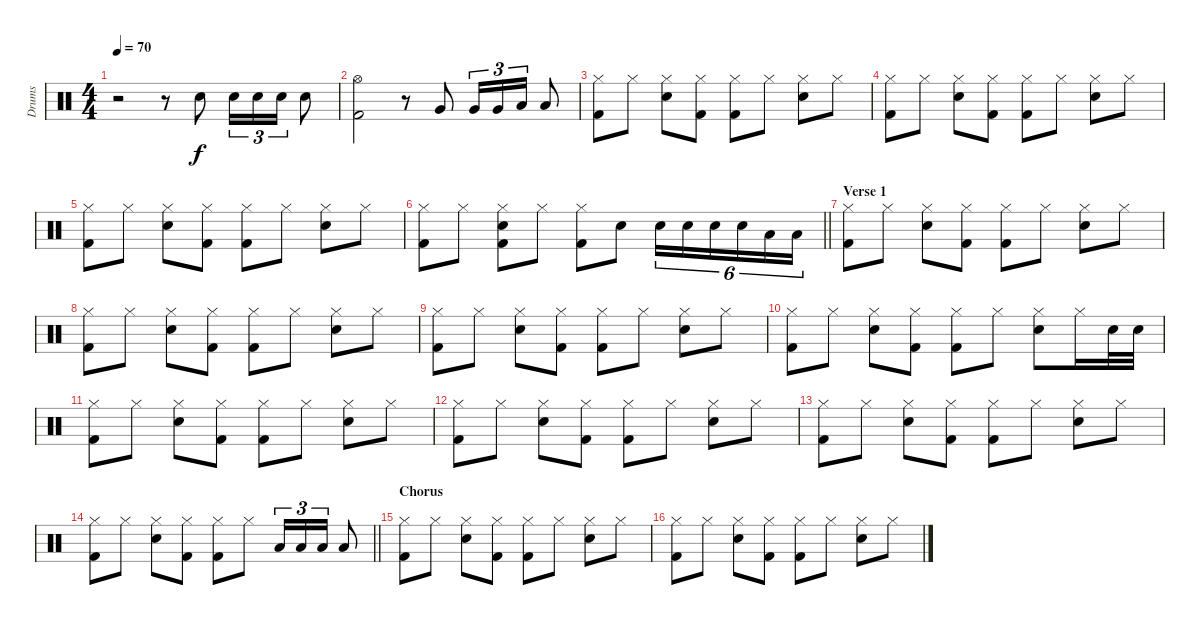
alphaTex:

\track ("Drums" "Drums") {instrument percussion}
\staff {score}
\articulation defaults
\ts (4 4)
\tempo 70
\clef neutral
\ks c
r.2{dy f} r.8 "Snare (hit) 2".8 "Snare (hit) 2".16{tu (3 2)} "Snare (hit) 2".16{tu (3 2)} "Snare (hit) 2".16{tu (3 2)} "Snare (hit) 2".8 |
("Kick (hit) 2" "Hi-Hat (open)").2 r.8 "Very Low Tom (hit)".8 "Very Low Tom (hit)".16{tu (3 2)} "Very Low Tom (hit)".16{tu (3 2)} "Low Floor Tom (hit)".16{tu (3 2)} "Low Floor Tom (hit)".8 |
("Kick (hit) 2" "Hi-Hat (closed)").8 "Hi-Hat (closed)".8 ("Snare (hit) 2" "Hi-Hat (closed)").8 ("Kick (hit) 2" "Hi-Hat (closed)").8 ("Kick (hit) 2" "Hi-Hat (closed)").8 "Hi-Hat (closed)".8 ("Snare (hit) 2" "Hi-Hat (closed)").8 "Hi-Hat (closed)".8 |
("Kick (hit) 2" "Hi-Hat (closed)").8 "Hi-Hat (closed)".8 ("Snare (hit) 2" "Hi-Hat (closed)").8 ("Kick (hit) 2" "Hi-Hat (closed)").8 ("Kick (hit) 2" "Hi-Hat (closed)").8 "Hi-Hat (closed)".8 ("Snare (hit) 2" "Hi-Hat (closed)").8 "Hi-Hat (closed)".8 |
("Kick (hit) 2" "Hi-Hat (closed)").8 "Hi-Hat (closed)".8 ("Snare (hit) 2" "Hi-Hat (closed)").8 ("Kick (hit) 2" "Hi-Hat (closed)").8 ("Kick (hit) 2" "Hi-Hat (closed)").8 "Hi-Hat (closed)".8 ("Snare (hit) 2" "Hi-Hat (closed)").8 "Hi-Hat (closed)".8 |
\barLineRight lightlight
("Kick (hit) 2" "Hi-Hat (closed)").8 "Hi-Hat (closed)".8 ("Kick (hit) 2" "Snare (hit) 2" "Hi-Hat (closed)").8 "Hi-Hat (closed)".8 ("Kick (hit) 2" "Hi-Hat (closed)").8 "Snare (hit) 2".8 "Snare (hit) 2".16{tu (6 4)} "Snare (hit) 2".16{tu (6 4)} "Snare (hit) 2".16{tu (6 4)} "Snare (hit) 2".16{tu (6 4)} "Low Tom (hit)".16{tu (6 4)} "Low Tom (hit)".16{tu (6 4)} |
\section ("" "Verse 1")
("Kick (hit) 2" "Hi-Hat (closed)").8 "Hi-Hat (closed)".8 ("Snare (hit) 2" "Hi-Hat (closed)").8 ("Kick (hit) 2" "Hi-Hat (closed)").8 ("Kick (hit) 2" "Hi-Hat (closed)").8 "Hi-Hat (closed)".8 ("Snare (hit) 2" "Hi-Hat (closed)").8 "Hi-Hat (closed)".8 |
("Kick (hit) 2" "Hi-Hat (closed)").8 "Hi-Hat (closed)".8 ("Snare (hit) 2" "Hi-Hat (closed)").8 ("Kick (hit) 2" "Hi-Hat (closed)").8 ("Kick (hit) 2" "Hi-Hat (closed)").8 "Hi-Hat (closed)".8 ("Snare (hit) 2" "Hi-Hat (closed)").8 "Hi-Hat (closed)".8 |
("Kick (hit) 2" "Hi-Hat (closed)").8 "Hi-Hat (closed)".8 ("Snare (hit) 2" "Hi-Hat (closed)").8 ("Kick (hit) 2" "Hi-Hat (closed)").8 ("Kick (hit) 2" "Hi-Hat (closed)").8 "Hi-Hat (closed)".8 ("Snare (hit) 2" "Hi-Hat (closed)").8 "Hi-Hat (closed)".8 |
("Kick (hit) 2" "Hi-Hat (closed)").8 "Hi-Hat (closed)".8 ("Snare (hit) 2" "Hi-Hat (closed)").8 ("Kick (hit) 2" "Hi-Hat (closed)").8 ("Kick (hit) 2" "Hi-Hat (closed)").8 "Hi-Hat (closed)".8 ("Snare (hit) 2" "Hi-Hat (closed)").8 "Hi-Hat (closed)".16 "Snare (hit) 2".32 "Snare (hit) 2".32 |
("Kick (hit) 2" "Hi-Hat (closed)").8 "Hi-Hat (closed)".8 ("Snare (hit) 2" "Hi-Hat (closed)").8 ("Kick (hit) 2" "Hi-Hat (closed)").8 ("Kick (hit) 2" "Hi-Hat (closed)").8 "Hi-Hat (closed)".8 ("Snare (hit) 2" "Hi-Hat (closed)").8 "Hi-Hat (closed)".8 |
("Kick (hit) 2" "Hi-Hat (closed)").8 "Hi-Hat (closed)".8 ("Snare (hit) 2" "Hi-Hat (closed)").8 ("Kick (hit) 2" "Hi-Hat (closed)").8 ("Kick (hit) 2" "Hi-Hat (closed)").8 "Hi-Hat (closed)".8 ("Snare (hit) 2" "Hi-Hat (closed)").8 "Hi-Hat (closed)".8 |
("Kick (hit) 2" "Hi-Hat (closed)").8 "Hi-Hat (closed)".8 ("Snare (hit) 2" "Hi-Hat (closed)").8 ("Kick (hit) 2" "Hi-Hat (closed)").8 ("Kick (hit) 2" "Hi-Hat (closed)").8 "Hi-Hat (closed)".8 ("Snare (hit) 2" "Hi-Hat (closed)").8 "Hi-Hat (closed)".8 |
\barLineRight lightlight
("Kick (hit) 2" "Hi-Hat (closed)").8 "Hi-Hat (closed)".8 ("Snare (hit) 2" "Hi-Hat (closed)").8 ("Kick (hit) 2" "Hi-Hat (closed)").8 ("Kick (hit) 2" "Hi-Hat (closed)").8 "Hi-Hat (closed)".8 "Low Tom (hit)".16{tu (3 2)} "Low Tom (hit)".16{tu (3 2)} "Low Tom (hit)".16{tu (3 2)} "Low Tom (hit)".8 |
\section ("" "Chorus")
("Kick (hit) 2" "Hi-Hat (closed)").8 "Hi-Hat (closed)".8 ("Snare (hit) 2" "Hi-Hat (closed)").8 ("Kick (hit) 2" "Hi-Hat (closed)").8 ("Kick (hit) 2" "Hi-Hat (closed)").8 "Hi-Hat (closed)".8 ("Snare (hit) 2" "Hi-Hat (closed)").8 "Hi-Hat (closed)".8 |
("Kick (hit) 2" "Hi-Hat (closed)").8 "Hi-Hat (closed)".8 ("Snare (hit) 2" "Hi-Hat (closed)").8 ("Kick (hit) 2" "Hi-Hat (closed)").8 ("Kick (hit) 2" "Hi-Hat (closed)").8 "Hi-Hat (closed)".8 ("Snare (hit) 2" "Hi-Hat (closed)").8 "Hi-Hat (closed)".8
